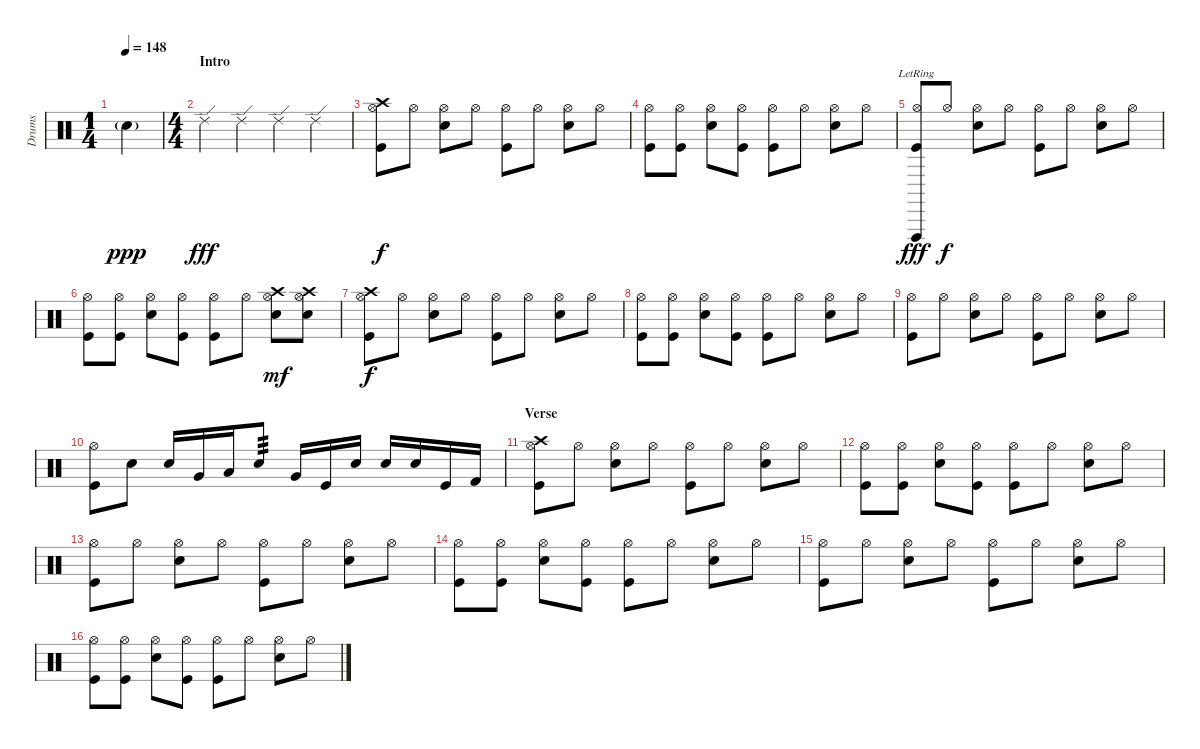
\track ("Drums" "Drums") {instrument percussion}
\staff {score}
\articulation defaults
\ts (1 4)
\tempo 148
\clef neutral
\ks c "Snare (hit)"{g}.4{dy ppp}
|
\ts (4 4)
\section ("" "Intro")
"Ride (edge) 2".4{dy fff} "Ride (edge) 2".4 "Ride (edge) 2".4 "Ride (edge) 2".4 |
("Crash high (hit)" "Hi-Hat (open)" "Kick (hit)").8{dy f} "Hi-Hat (open)".8 ("Hi-Hat (open)" "Snare (hit) 2").8 "Hi-Hat (open)".8 ("Hi-Hat (open)" "Kick (hit)").8 "Hi-Hat (open)".8 ("Hi-Hat (open)" "Snare (hit) 2").8 "Hi-Hat (open)".8 |
("Hi-Hat (open)" "Kick (hit)").8 ("Hi-Hat (open)" "Kick (hit)").8 ("Hi-Hat (open)" "Snare (hit) 2").8 ("Hi-Hat (open)" "Kick (hit)").8 ("Hi-Hat (open)" "Kick (hit)").8 "Hi-Hat (open)".8 ("Hi-Hat (open)" "Snare (hit) 2").8 "Hi-Hat (open)".8 |
("Vibraslap (hit)"{lr} "Hi-Hat (open)" "Kick (hit)").8{dy fff} "Hi-Hat (open)".8{dy f} ("Hi-Hat (open)" "Snare (hit) 2").8 "Hi-Hat (open)".8 ("Hi-Hat (open)" "Kick (hit)").8 "Hi-Hat (open)".8 ("Hi-Hat (open)" "Snare (hit) 2").8 "Hi-Hat (open)".8 |
("Hi-Hat (open)" "Kick (hit)").8 ("Hi-Hat (open)" "Kick (hit)").8 ("Hi-Hat (open)" "Snare (hit) 2").8 ("Hi-Hat (open)" "Kick (hit)").8 ("Hi-Hat (open)" "Kick (hit)").8 "Hi-Hat (open)".8 ("Crash high (hit)" "Hi-Hat (open)" "Snare (hit) 2").8{dy mf} ("Crash high (hit)" "Hi-Hat (open)" "Snare (hit) 2").8 |
("Crash high (hit)" "Hi-Hat (open)" "Kick (hit)").8{dy f} "Hi-Hat (open)".8 ("Hi-Hat (open)" "Snare (hit) 2").8 "Hi-Hat (open)".8 ("Hi-Hat (open)" "Kick (hit)").8 "Hi-Hat (open)".8 ("Hi-Hat (open)" "Snare (hit) 2").8 "Hi-Hat (open)".8 |
("Hi-Hat (open)" "Kick (hit)").8 ("Hi-Hat (open)" "Kick (hit)").8 ("Hi-Hat (open)" "Snare (hit) 2").8 ("Hi-Hat (open)" "Kick (hit)").8 ("Hi-Hat (open)" "Kick (hit)").8 "Hi-Hat (open)".8 ("Hi-Hat (open)" "Snare (hit) 2").8 "Hi-Hat (open)".8 |
("Hi-Hat (open)" "Kick (hit)").8 "Hi-Hat (open)".8 ("Hi-Hat (open)" "Snare (hit) 2").8 "Hi-Hat (open)".8 ("Hi-Hat (open)" "Kick (hit)").8 "Hi-Hat (open)".8 ("Hi-Hat (open)" "Snare (hit) 2").8 "Hi-Hat (open)".8 |
("Hi-Hat (open)" "Kick (hit)").8 "Electric Snare (hit)".8 "Snare (hit) 2".16 "Very Low Tom (hit)".16 "Low Floor Tom (hit)".16 "Snare (hit) 2".8{tp 3} "Very Low Tom (hit)".16 "Kick (hit)".16 "Electric Snare (hit)".16 "Snare (hit) 2".16 "Electric Snare (hit)".16 "Kick (hit)".16 "Kick (hit) 2".16 |
\section ("" "Verse")
("Crash high (hit)" "Hi-Hat (open)" "Kick (hit)").8 "Hi-Hat (open)".8 ("Hi-Hat (open)" "Snare (hit) 2").8 "Hi-Hat (open)".8 ("Hi-Hat (open)" "Kick (hit)").8 "Hi-Hat (open)".8 ("Hi-Hat (open)" "Snare (hit) 2").8 "Hi-Hat (open)".8 |
("Hi-Hat (open)" "Kick (hit)").8 ("Hi-Hat (open)" "Kick (hit)").8 ("Hi-Hat (open)" "Snare (hit) 2").8 ("Hi-Hat (open)" "Kick (hit)").8 ("Hi-Hat (open)" "Kick (hit)").8 "Hi-Hat (open)".8 ("Hi-Hat (open)" "Snare (hit) 2").8 "Hi-Hat (open)".8 |
("Hi-Hat (open)" "Kick (hit)").8 "Hi-Hat (open)".8 ("Hi-Hat (open)" "Snare (hit) 2").8 "Hi-Hat (open)".8 ("Hi-Hat (open)" "Kick (hit)").8 "Hi-Hat (open)".8 ("Hi-Hat (open)" "Snare (hit) 2").8 "Hi-Hat (open)".8 |
("Hi-Hat (open)" "Kick (hit)").8 ("Hi-Hat (open)" "Kick (hit)").8 ("Hi-Hat (open)" "Snare (hit) 2").8 ("Hi-Hat (open)" "Kick (hit)").8 ("Hi-Hat (open)" "Kick (hit)").8 "Hi-Hat (open)".8 ("Hi-Hat (open)" "Snare (hit) 2").8 "Hi-Hat (open)".8 |
("Hi-Hat (open)" "Kick (hit)").8 "Hi-Hat (open)".8 ("Hi-Hat (open)" "Snare (hit) 2").8 "Hi-Hat (open)".8 ("Hi-Hat (open)" "Kick (hit)").8 "Hi-Hat (open)".8 ("Hi-Hat (open)" "Snare (hit) 2").8 "Hi-Hat (open)".8 |
("Hi-Hat (open)" "Kick (hit)").8 ("Hi-Hat (open)" "Kick (hit)").8 ("Hi-Hat (open)" "Snare (hit) 2").8 ("Hi-Hat (open)" "Kick (hit)").8 ("Hi-Hat (open)" "Kick (hit)").8 "Hi-Hat (open)".8 ("Hi-Hat (open)" "Snare (hit) 2").8 "Hi-Hat (open)".8
